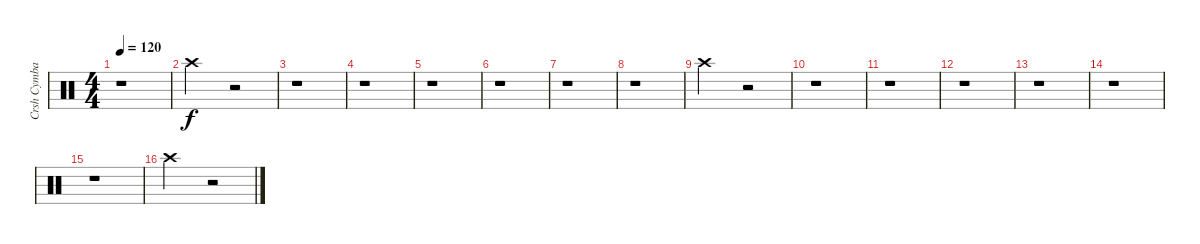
\track ("Crsh Cymbal         " "Crsh Cymba") {instrument percussion}
\staff {score}
\articulation defaults
\ts (4 4)
\tempo 120
\clef neutral
\ks c
r.1{dy f} |
"Crash high (hit)".2 r.2 |
r.1 |
r.1 |
r.1 |
r.1 |
r.1 |
r.1 |
"Crash high (hit)".2 r.2 |
r.1 |
r.1 |
r.1 |
r.1 |
r.1 |
r.1 |
"Crash high (hit)".2 r.2
